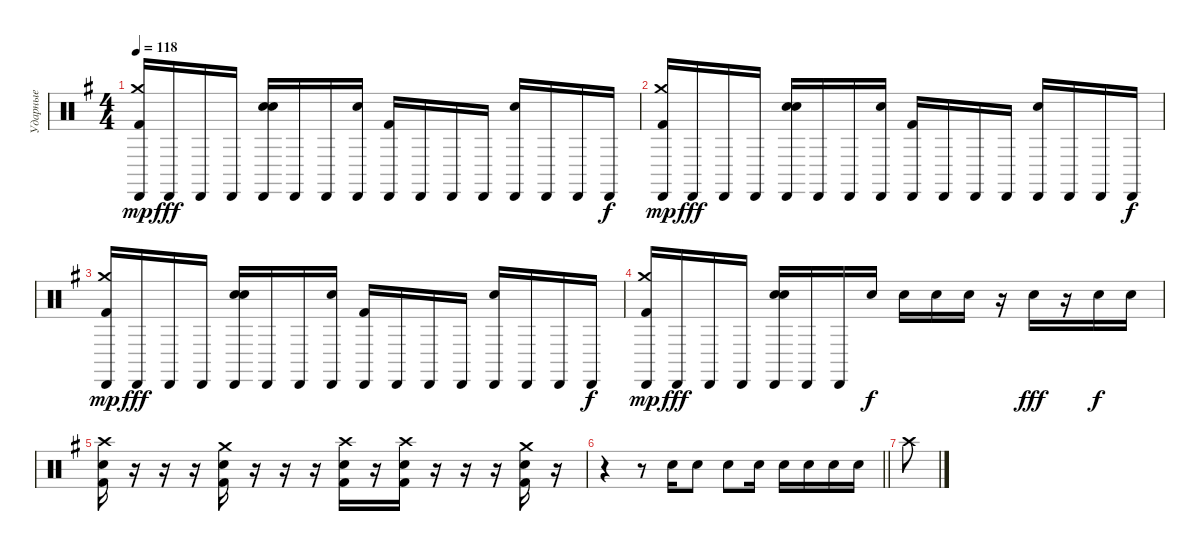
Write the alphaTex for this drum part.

\track ("Ударные" "Ударные") {instrument percussion}
\staff {score}
\articulation defaults
\ts (4 4)
\tempo 118
\clef neutral
\ks eminor
("Cabasa (hit)" "Crash medium (hit)" "Kick (hit) 2").16{dy mp} "Cabasa (hit)".16{dy fff} "Cabasa (hit)".16 "Cabasa (hit)".16 ("Cabasa (hit)" "Electric Snare (hit)" "Snare (hit) 2").16 "Cabasa (hit)".16 "Cabasa (hit)".16 ("Cabasa (hit)" "Snare (hit) 2").16 ("Cabasa (hit)" "Kick (hit) 2").16 "Cabasa (hit)".16 "Cabasa (hit)".16 "Cabasa (hit)".16 ("Cabasa (hit)" "Snare (hit) 2").16 "Cabasa (hit)".16 "Cabasa (hit)".16 "Cabasa (hit)".16{dy f} |
("Cabasa (hit)" "Crash medium (hit)" "Kick (hit) 2").16{dy mp} "Cabasa (hit)".16{dy fff} "Cabasa (hit)".16 "Cabasa (hit)".16 ("Cabasa (hit)" "Electric Snare (hit)" "Snare (hit) 2").16 "Cabasa (hit)".16 "Cabasa (hit)".16 ("Cabasa (hit)" "Snare (hit) 2").16 ("Cabasa (hit)" "Kick (hit) 2").16 "Cabasa (hit)".16 "Cabasa (hit)".16 "Cabasa (hit)".16 ("Cabasa (hit)" "Snare (hit) 2").16 "Cabasa (hit)".16 "Cabasa (hit)".16 "Cabasa (hit)".16{dy f} |
("Cabasa (hit)" "Crash medium (hit)" "Kick (hit) 2").16{dy mp} "Cabasa (hit)".16{dy fff} "Cabasa (hit)".16 "Cabasa (hit)".16 ("Cabasa (hit)" "Electric Snare (hit)" "Snare (hit) 2").16 "Cabasa (hit)".16 "Cabasa (hit)".16 ("Cabasa (hit)" "Snare (hit) 2").16 ("Cabasa (hit)" "Kick (hit) 2").16 "Cabasa (hit)".16 "Cabasa (hit)".16 "Cabasa (hit)".16 ("Cabasa (hit)" "Snare (hit) 2").16 "Cabasa (hit)".16 "Cabasa (hit)".16 "Cabasa (hit)".16{dy f} |
("Cabasa (hit)" "Crash medium (hit)" "Kick (hit) 2").16{dy mp} "Cabasa (hit)".16{dy fff} "Cabasa (hit)".16 "Cabasa (hit)".16 ("Cabasa (hit)" "Electric Snare (hit)" "Snare (hit) 2").16 "Cabasa (hit)".16 "Cabasa (hit)".16 "Snare (hit) 2".16{dy f} "Snare (hit) 2".16 "Snare (hit) 2".16 "Snare (hit) 2".16 r.16 "Snare (hit) 2".16{dy fff} r.16 "Snare (hit) 2".16{dy f} "Snare (hit) 2".16 |
("Crash high (hit)" "Electric Snare (hit)" "Kick (hit) 2").16 r.16 r.16 r.16 ("Crash medium (hit)" "Electric Snare (hit)" "Kick (hit) 2").16 r.16 r.16 r.16 ("Crash high (hit)" "Electric Snare (hit)" "Kick (hit) 2").16 r.16 ("Crash high (hit)" "Electric Snare (hit)" "Kick (hit) 2").16 r.16 r.16 r.16 ("Crash medium (hit)" "Electric Snare (hit)" "Kick (hit) 2").16 r.16 |
\barLineRight lightlight
r.4 r.8 "Electric Snare (hit)".16 "Electric Snare (hit)".8 "Electric Snare (hit)".8 "Electric Snare (hit)".16 "Electric Snare (hit)".16 "Electric Snare (hit)".16 "Electric Snare (hit)".16 "Electric Snare (hit)".16 |
"Crash high (hit)".8
